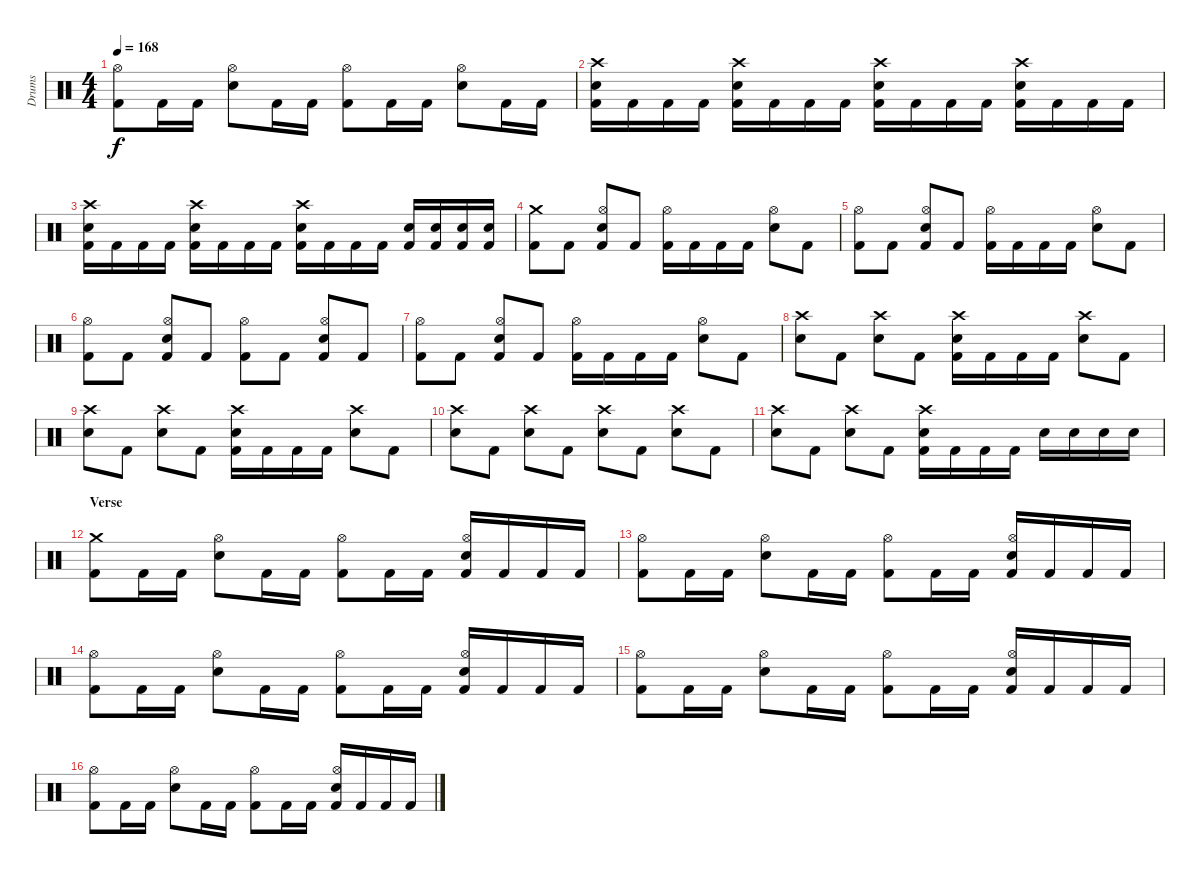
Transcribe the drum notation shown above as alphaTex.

\track ("Drums" "Drums") {instrument percussion}
\staff {score}
\articulation defaults
\ts (4 4)
\tempo 168
\clef neutral
\ks c
("Kick (hit) 2" "Hi-Hat (open)").8{dy f} "Kick (hit) 2".16 "Kick (hit) 2".16 ("Electric Snare (hit)" "Hi-Hat (open)").8 "Kick (hit) 2".16 "Kick (hit) 2".16 ("Kick (hit) 2" "Hi-Hat (open)").8 "Kick (hit) 2".16 "Kick (hit) 2".16 ("Electric Snare (hit)" "Hi-Hat (open)").8 "Kick (hit) 2".16 "Kick (hit) 2".16 |
("Kick (hit) 2" "Electric Snare (hit)" "Crash high (hit)").16 "Kick (hit) 2".16 "Kick (hit) 2".16 "Kick (hit) 2".16 ("Kick (hit) 2" "Electric Snare (hit)" "Crash high (hit)").16 "Kick (hit) 2".16 "Kick (hit) 2".16 "Kick (hit) 2".16 ("Kick (hit) 2" "Electric Snare (hit)" "Crash high (hit)").16 "Kick (hit) 2".16 "Kick (hit) 2".16 "Kick (hit) 2".16 ("Kick (hit) 2" "Electric Snare (hit)" "Crash high (hit)").16 "Kick (hit) 2".16 "Kick (hit) 2".16 "Kick (hit) 2".16 |
("Kick (hit) 2" "Electric Snare (hit)" "Crash high (hit)").16 "Kick (hit) 2".16 "Kick (hit) 2".16 "Kick (hit) 2".16 ("Kick (hit) 2" "Electric Snare (hit)" "Crash high (hit)").16 "Kick (hit) 2".16 "Kick (hit) 2".16 "Kick (hit) 2".16 ("Kick (hit) 2" "Electric Snare (hit)" "Crash high (hit)").16 "Kick (hit) 2".16 "Kick (hit) 2".16 "Kick (hit) 2".16 ("Kick (hit) 2" "Electric Snare (hit)").16 ("Kick (hit) 2" "Electric Snare (hit)").16 ("Kick (hit) 2" "Electric Snare (hit)").16 ("Kick (hit) 2" "Electric Snare (hit)").16 |
\section ("" "")
("Kick (hit) 2" "Crash medium (hit)").8 "Kick (hit) 2".8 ("Kick (hit) 2" "Electric Snare (hit)" "Hi-Hat (open)").8 "Kick (hit) 2".8 ("Kick (hit) 2" "Hi-Hat (open)").16 "Kick (hit) 2".16 "Kick (hit) 2".16 "Kick (hit) 2".16 ("Electric Snare (hit)" "Hi-Hat (open)").8 "Kick (hit) 2".8 |
("Kick (hit) 2" "Hi-Hat (open)").8 "Kick (hit) 2".8 ("Kick (hit) 2" "Electric Snare (hit)" "Hi-Hat (open)").8 "Kick (hit) 2".8 ("Kick (hit) 2" "Hi-Hat (open)").16 "Kick (hit) 2".16 "Kick (hit) 2".16 "Kick (hit) 2".16 ("Electric Snare (hit)" "Hi-Hat (open)").8 "Kick (hit) 2".8 |
("Kick (hit) 2" "Hi-Hat (open)").8 "Kick (hit) 2".8 ("Kick (hit) 2" "Electric Snare (hit)" "Hi-Hat (open)").8 "Kick (hit) 2".8 ("Kick (hit) 2" "Hi-Hat (open)").8 "Kick (hit) 2".8 ("Kick (hit) 2" "Electric Snare (hit)" "Hi-Hat (open)").8 "Kick (hit) 2".8 |
("Kick (hit) 2" "Hi-Hat (open)").8 "Kick (hit) 2".8 ("Kick (hit) 2" "Electric Snare (hit)" "Hi-Hat (open)").8 "Kick (hit) 2".8 ("Kick (hit) 2" "Hi-Hat (open)").16 "Kick (hit) 2".16 "Kick (hit) 2".16 "Kick (hit) 2".16 ("Electric Snare (hit)" "Hi-Hat (open)").8 "Kick (hit) 2".8 |
("Electric Snare (hit)" "Crash high (hit)").8 "Kick (hit) 2".8 ("Electric Snare (hit)" "Crash high (hit)").8 "Kick (hit) 2".8 ("Kick (hit) 2" "Electric Snare (hit)" "Crash high (hit)").16 "Kick (hit) 2".16 "Kick (hit) 2".16 "Kick (hit) 2".16 ("Electric Snare (hit)" "Crash high (hit)").8 "Kick (hit) 2".8 |
("Electric Snare (hit)" "Crash high (hit)").8 "Kick (hit) 2".8 ("Electric Snare (hit)" "Crash high (hit)").8 "Kick (hit) 2".8 ("Kick (hit) 2" "Electric Snare (hit)" "Crash high (hit)").16 "Kick (hit) 2".16 "Kick (hit) 2".16 "Kick (hit) 2".16 ("Electric Snare (hit)" "Crash high (hit)").8 "Kick (hit) 2".8 |
("Electric Snare (hit)" "Crash high (hit)").8 "Kick (hit) 2".8 ("Electric Snare (hit)" "Crash high (hit)").8 "Kick (hit) 2".8 ("Electric Snare (hit)" "Crash high (hit)").8 "Kick (hit) 2".8 ("Electric Snare (hit)" "Crash high (hit)").8 "Kick (hit) 2".8 |
("Electric Snare (hit)" "Crash high (hit)").8 "Kick (hit) 2".8 ("Electric Snare (hit)" "Crash high (hit)").8 "Kick (hit) 2".8 ("Kick (hit) 2" "Electric Snare (hit)" "Crash high (hit)").16 "Kick (hit) 2".16 "Kick (hit) 2".16 "Kick (hit) 2".16 "Electric Snare (hit)".16 "Electric Snare (hit)".16 "Electric Snare (hit)".16 "Electric Snare (hit)".16 |
\section ("" "Verse")
("Kick (hit) 2" "Crash medium (hit)").8 "Kick (hit) 2".16 "Kick (hit) 2".16 ("Electric Snare (hit)" "Hi-Hat (open)").8 "Kick (hit) 2".16 "Kick (hit) 2".16 ("Kick (hit) 2" "Hi-Hat (open)").8 "Kick (hit) 2".16 "Kick (hit) 2".16 ("Kick (hit) 2" "Electric Snare (hit)" "Hi-Hat (open)").16 "Kick (hit) 2".16 "Kick (hit) 2".16 "Kick (hit) 2".16 |
("Kick (hit) 2" "Hi-Hat (open)").8 "Kick (hit) 2".16 "Kick (hit) 2".16 ("Electric Snare (hit)" "Hi-Hat (open)").8 "Kick (hit) 2".16 "Kick (hit) 2".16 ("Kick (hit) 2" "Hi-Hat (open)").8 "Kick (hit) 2".16 "Kick (hit) 2".16 ("Kick (hit) 2" "Electric Snare (hit)" "Hi-Hat (open)").16 "Kick (hit) 2".16 "Kick (hit) 2".16 "Kick (hit) 2".16 |
("Kick (hit) 2" "Hi-Hat (open)").8 "Kick (hit) 2".16 "Kick (hit) 2".16 ("Electric Snare (hit)" "Hi-Hat (open)").8 "Kick (hit) 2".16 "Kick (hit) 2".16 ("Kick (hit) 2" "Hi-Hat (open)").8 "Kick (hit) 2".16 "Kick (hit) 2".16 ("Kick (hit) 2" "Electric Snare (hit)" "Hi-Hat (open)").16 "Kick (hit) 2".16 "Kick (hit) 2".16 "Kick (hit) 2".16 |
("Kick (hit) 2" "Hi-Hat (open)").8 "Kick (hit) 2".16 "Kick (hit) 2".16 ("Electric Snare (hit)" "Hi-Hat (open)").8 "Kick (hit) 2".16 "Kick (hit) 2".16 ("Kick (hit) 2" "Hi-Hat (open)").8 "Kick (hit) 2".16 "Kick (hit) 2".16 ("Kick (hit) 2" "Electric Snare (hit)" "Hi-Hat (open)").16 "Kick (hit) 2".16 "Kick (hit) 2".16 "Kick (hit) 2".16 |
("Kick (hit) 2" "Hi-Hat (open)").8 "Kick (hit) 2".16 "Kick (hit) 2".16 ("Electric Snare (hit)" "Hi-Hat (open)").8 "Kick (hit) 2".16 "Kick (hit) 2".16 ("Kick (hit) 2" "Hi-Hat (open)").8 "Kick (hit) 2".16 "Kick (hit) 2".16 ("Kick (hit) 2" "Electric Snare (hit)" "Hi-Hat (open)").16 "Kick (hit) 2".16 "Kick (hit) 2".16 "Kick (hit) 2".16
